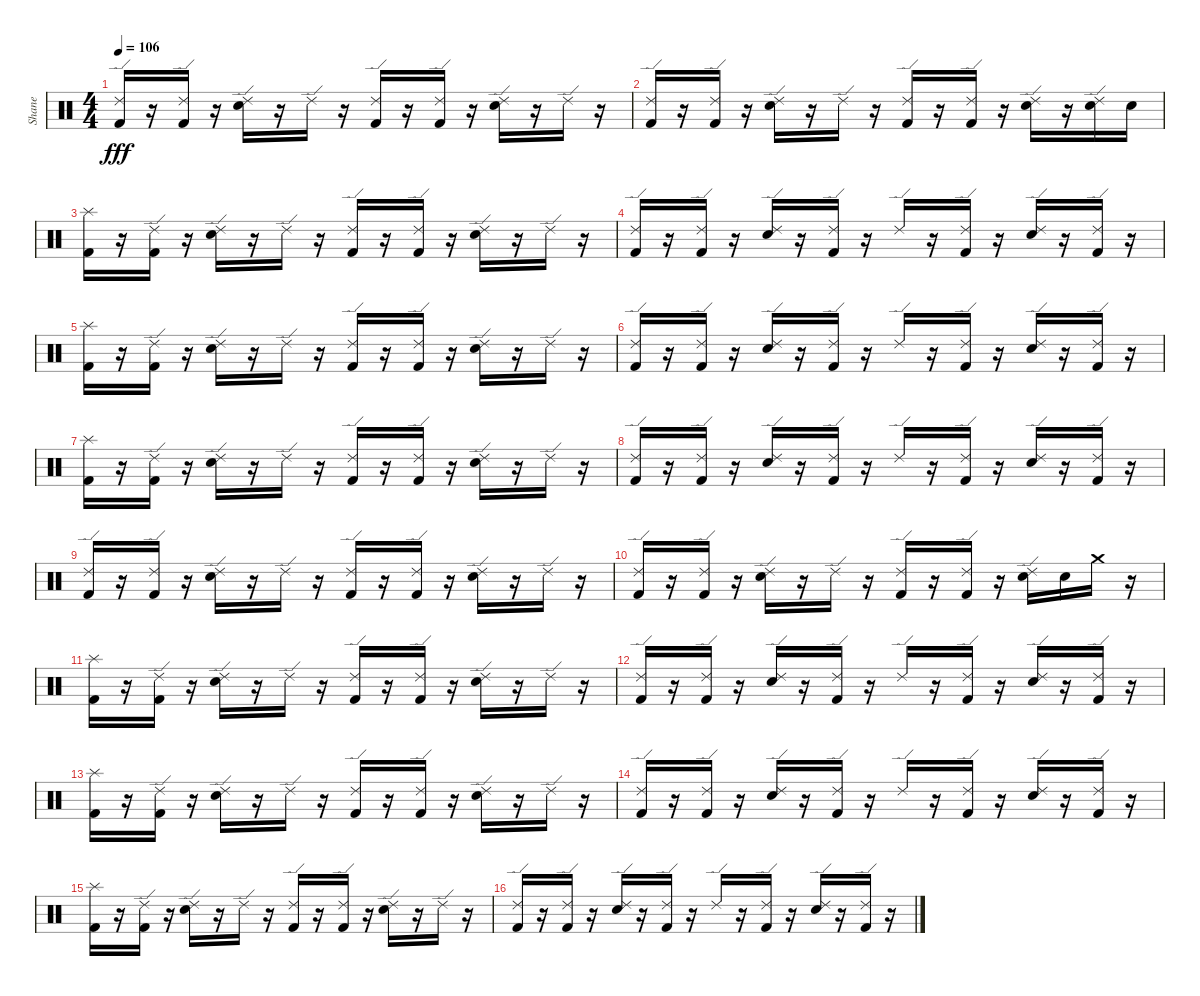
\track ("Shane" "Shane") {instrument percussion}
\staff {score}
\articulation defaults
\ts (4 4)
\tempo 106
\clef neutral
\ks c
("Kick (hit) 2" "Ride (edge) 2").16{dy fff} r.16 ("Kick (hit) 2" "Ride (edge) 2").16 r.16 ("Snare (hit) 2" "Ride (edge) 2").16 r.16 "Ride (edge) 2".16 r.16 ("Kick (hit) 2" "Ride (edge) 2").16 r.16 ("Kick (hit) 2" "Ride (edge) 2").16 r.16 ("Snare (hit) 2" "Ride (edge) 2").16 r.16 "Ride (edge) 2".16 r.16 |
("Kick (hit) 2" "Ride (edge) 2").16 r.16 ("Kick (hit) 2" "Ride (edge) 2").16 r.16 ("Snare (hit) 2" "Ride (edge) 2").16 r.16 "Ride (edge) 2".16 r.16 ("Kick (hit) 2" "Ride (edge) 2").16 r.16 ("Kick (hit) 2" "Ride (edge) 2").16 r.16 ("Snare (hit) 2" "Ride (edge) 2").16 r.16 ("Ride (edge) 2" "Snare (hit) 2").16 "Snare (hit) 2".16 |
("Splash (hit)" "Kick (hit) 2").16 r.16 ("Kick (hit) 2" "Ride (edge) 2").16 r.16 ("Snare (hit) 2" "Ride (edge) 2").16 r.16 "Ride (edge) 2".16 r.16 ("Kick (hit) 2" "Ride (edge) 2").16 r.16 ("Kick (hit) 2" "Ride (edge) 2").16 r.16 ("Snare (hit) 2" "Ride (edge) 2").16 r.16 "Ride (edge) 2".16 r.16 |
("Ride (edge) 2" "Kick (hit) 2").16 r.16 ("Kick (hit) 2" "Ride (edge) 2").16 r.16 ("Snare (hit) 2" "Ride (edge) 2").16 r.16 ("Kick (hit) 2" "Ride (edge) 2").16 r.16 "Ride (edge) 2".16 r.16 ("Kick (hit) 2" "Ride (edge) 2").16 r.16 ("Snare (hit) 2" "Ride (edge) 2").16 r.16 ("Kick (hit) 2" "Ride (edge) 2").16 r.16 |
("Splash (hit)" "Kick (hit) 2").16 r.16 ("Kick (hit) 2" "Ride (edge) 2").16 r.16 ("Snare (hit) 2" "Ride (edge) 2").16 r.16 "Ride (edge) 2".16 r.16 ("Kick (hit) 2" "Ride (edge) 2").16 r.16 ("Kick (hit) 2" "Ride (edge) 2").16 r.16 ("Snare (hit) 2" "Ride (edge) 2").16 r.16 "Ride (edge) 2".16 r.16 |
("Ride (edge) 2" "Kick (hit) 2").16 r.16 ("Kick (hit) 2" "Ride (edge) 2").16 r.16 ("Snare (hit) 2" "Ride (edge) 2").16 r.16 ("Kick (hit) 2" "Ride (edge) 2").16 r.16 "Ride (edge) 2".16 r.16 ("Kick (hit) 2" "Ride (edge) 2").16 r.16 ("Snare (hit) 2" "Ride (edge) 2").16 r.16 ("Kick (hit) 2" "Ride (edge) 2").16 r.16 |
("Splash (hit)" "Kick (hit) 2").16 r.16 ("Kick (hit) 2" "Ride (edge) 2").16 r.16 ("Snare (hit) 2" "Ride (edge) 2").16 r.16 "Ride (edge) 2".16 r.16 ("Kick (hit) 2" "Ride (edge) 2").16 r.16 ("Kick (hit) 2" "Ride (edge) 2").16 r.16 ("Snare (hit) 2" "Ride (edge) 2").16 r.16 "Ride (edge) 2".16 r.16 |
("Ride (edge) 2" "Kick (hit) 2").16 r.16 ("Kick (hit) 2" "Ride (edge) 2").16 r.16 ("Snare (hit) 2" "Ride (edge) 2").16 r.16 ("Kick (hit) 2" "Ride (edge) 2").16 r.16 "Ride (edge) 2".16 r.16 ("Kick (hit) 2" "Ride (edge) 2").16 r.16 ("Snare (hit) 2" "Ride (edge) 2").16 r.16 ("Kick (hit) 2" "Ride (edge) 2").16 r.16 |
("Kick (hit) 2" "Ride (edge) 2").16 r.16 ("Kick (hit) 2" "Ride (edge) 2").16 r.16 ("Snare (hit) 2" "Ride (edge) 2").16 r.16 "Ride (edge) 2".16 r.16 ("Kick (hit) 2" "Ride (edge) 2").16 r.16 ("Kick (hit) 2" "Ride (edge) 2").16 r.16 ("Snare (hit) 2" "Ride (edge) 2").16 r.16 "Ride (edge) 2".16 r.16 |
("Kick (hit) 2" "Ride (edge) 2").16 r.16 ("Kick (hit) 2" "Ride (edge) 2").16 r.16 ("Snare (hit) 2" "Ride (edge) 2").16 r.16 "Ride (edge) 2".16 r.16 ("Kick (hit) 2" "Ride (edge) 2").16 r.16 ("Kick (hit) 2" "Ride (edge) 2").16 r.16 ("Snare (hit) 2" "Ride (edge) 2").16 "Snare (hit) 2".16 "Crash medium (hit)".16 r.16 |
("Splash (hit)" "Kick (hit) 2").16 r.16 ("Kick (hit) 2" "Ride (edge) 2").16 r.16 ("Snare (hit) 2" "Ride (edge) 2").16 r.16 "Ride (edge) 2".16 r.16 ("Kick (hit) 2" "Ride (edge) 2").16 r.16 ("Kick (hit) 2" "Ride (edge) 2").16 r.16 ("Snare (hit) 2" "Ride (edge) 2").16 r.16 "Ride (edge) 2".16 r.16 |
("Ride (edge) 2" "Kick (hit) 2").16 r.16 ("Kick (hit) 2" "Ride (edge) 2").16 r.16 ("Snare (hit) 2" "Ride (edge) 2").16 r.16 ("Kick (hit) 2" "Ride (edge) 2").16 r.16 "Ride (edge) 2".16 r.16 ("Kick (hit) 2" "Ride (edge) 2").16 r.16 ("Snare (hit) 2" "Ride (edge) 2").16 r.16 ("Kick (hit) 2" "Ride (edge) 2").16 r.16 |
("Splash (hit)" "Kick (hit) 2").16 r.16 ("Kick (hit) 2" "Ride (edge) 2").16 r.16 ("Snare (hit) 2" "Ride (edge) 2").16 r.16 "Ride (edge) 2".16 r.16 ("Kick (hit) 2" "Ride (edge) 2").16 r.16 ("Kick (hit) 2" "Ride (edge) 2").16 r.16 ("Snare (hit) 2" "Ride (edge) 2").16 r.16 "Ride (edge) 2".16 r.16 |
("Ride (edge) 2" "Kick (hit) 2").16 r.16 ("Kick (hit) 2" "Ride (edge) 2").16 r.16 ("Snare (hit) 2" "Ride (edge) 2").16 r.16 ("Kick (hit) 2" "Ride (edge) 2").16 r.16 "Ride (edge) 2".16 r.16 ("Kick (hit) 2" "Ride (edge) 2").16 r.16 ("Snare (hit) 2" "Ride (edge) 2").16 r.16 ("Kick (hit) 2" "Ride (edge) 2").16 r.16 |
("Splash (hit)" "Kick (hit) 2").16 r.16 ("Kick (hit) 2" "Ride (edge) 2").16 r.16 ("Snare (hit) 2" "Ride (edge) 2").16 r.16 "Ride (edge) 2".16 r.16 ("Kick (hit) 2" "Ride (edge) 2").16 r.16 ("Kick (hit) 2" "Ride (edge) 2").16 r.16 ("Snare (hit) 2" "Ride (edge) 2").16 r.16 "Ride (edge) 2".16 r.16 |
("Ride (edge) 2" "Kick (hit) 2").16 r.16 ("Kick (hit) 2" "Ride (edge) 2").16 r.16 ("Snare (hit) 2" "Ride (edge) 2").16 r.16 ("Kick (hit) 2" "Ride (edge) 2").16 r.16 "Ride (edge) 2".16 r.16 ("Kick (hit) 2" "Ride (edge) 2").16 r.16 ("Snare (hit) 2" "Ride (edge) 2").16 r.16 ("Kick (hit) 2" "Ride (edge) 2").16 r.16
